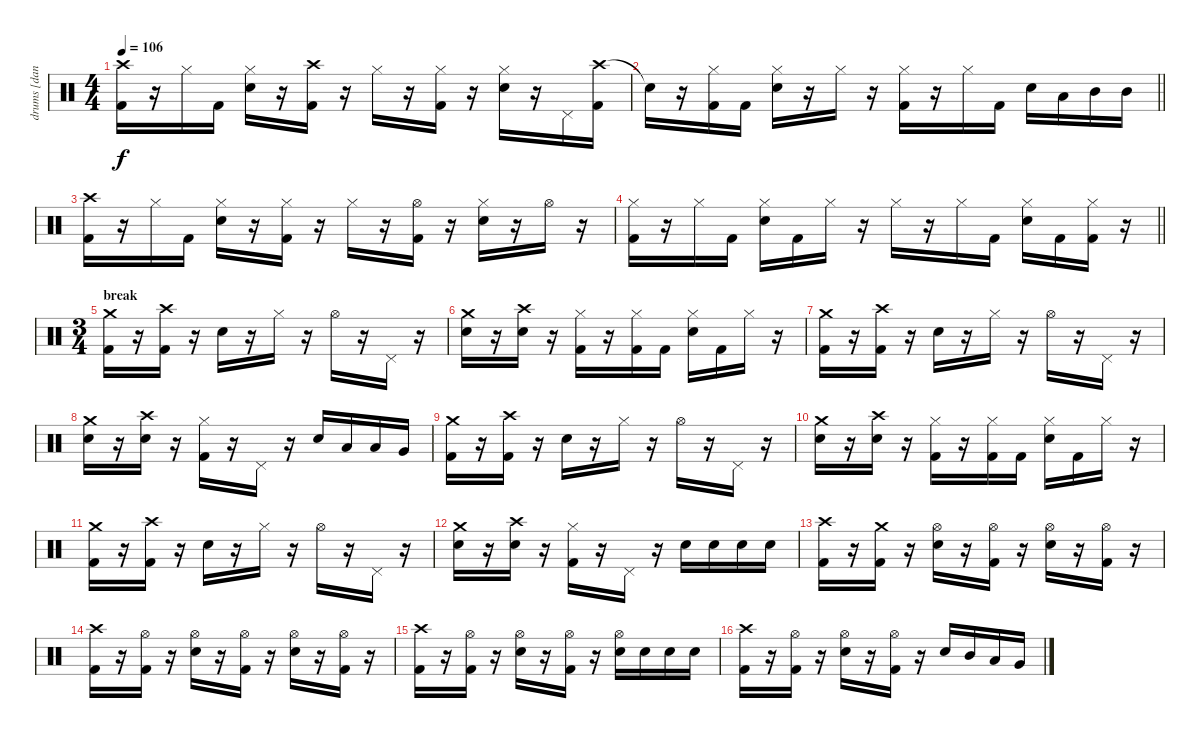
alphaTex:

\track ("drums [danny carey]" "drums [dan") {instrument percussion}
\staff {score}
\articulation defaults
\ts (4 4)
\tempo 106
\clef neutral
\ks c
("Crash high (hit)" "Kick (hit) 2").16{dy f} r.16 "Hi-Hat (closed)".16 "Kick (hit) 2".16 ("Hi-Hat (closed)" "Electric Snare (hit)").16 r.16 ("Crash high (hit)" "Kick (hit) 2").16 r.16 "Hi-Hat (closed)".16 r.16 ("Hi-Hat (closed)" "Kick (hit) 2").16 r.16 ("Hi-Hat (closed)" "Electric Snare (hit)").16 r.16 "Pedal Hi-Hat (hit)".16 ("Crash high (hit)" "Kick (hit) 2").16 |
\barLineRight lightlight "Snare (hit)"{t}.16
r.16 ("Hi-Hat (closed)" "Kick (hit) 2").16 "Kick (hit) 2".16 ("Hi-Hat (closed)" "Electric Snare (hit)").16 r.16 "Hi-Hat (closed)".16 r.16 ("Hi-Hat (closed)" "Kick (hit) 2").16 r.16 "Hi-Hat (closed)".16 "Kick (hit) 2".16 "Electric Snare (hit)".16 "Low Tom (hit)".16 "Mid Tom (hit)".16 "Mid Tom (hit)".16 |
("Crash high (hit)" "Kick (hit) 2").16 r.16 "Hi-Hat (closed)".16 "Kick (hit) 2".16 ("Hi-Hat (closed)" "Electric Snare (hit)").16 r.16 ("Hi-Hat (closed)" "Kick (hit) 2").16 r.16 "Hi-Hat (closed)".16 r.16 ("Hi-Hat (open)" "Kick (hit) 2").16 r.16 ("Hi-Hat (closed)" "Electric Snare (hit)").16 r.16 "Hi-Hat (open)".16 r.16 |
\barLineRight lightlight
("Hi-Hat (closed)" "Kick (hit) 2").16 r.16 "Hi-Hat (closed)".16 "Kick (hit) 2".16 ("Hi-Hat (closed)" "Electric Snare (hit)").16 "Kick (hit) 2".16 "Hi-Hat (closed)".16 r.16 "Hi-Hat (closed)".16 r.16 "Hi-Hat (closed)".16 "Kick (hit) 2".16 ("Hi-Hat (closed)" "Electric Snare (hit)").16 "Kick (hit) 2".16 ("Hi-Hat (closed)" "Kick (hit) 2").16 r.16 |
\ts (3 4)
\section ("" "break")
("Crash medium (hit)" "Kick (hit) 2").16 r.16 ("Crash high (hit)" "Kick (hit) 2").16 r.16 "Electric Snare (hit)".16 r.16 "Hi-Hat (closed)".16 r.16 "Hi-Hat (open)".16 r.16 "Pedal Hi-Hat (hit)".16 r.16 |
("Crash medium (hit)" "Electric Snare (hit)").16 r.16 ("Crash high (hit)" "Electric Snare (hit)").16 r.16 ("Hi-Hat (closed)" "Kick (hit) 2").16 r.16 ("Hi-Hat (closed)" "Kick (hit) 2").16 "Kick (hit) 2".16 ("Hi-Hat (closed)" "Electric Snare (hit)").16 "Kick (hit) 2".16 "Hi-Hat (closed)".16 r.16 |
("Crash medium (hit)" "Kick (hit) 2").16 r.16 ("Crash high (hit)" "Kick (hit) 2").16 r.16 "Electric Snare (hit)".16 r.16 "Hi-Hat (closed)".16 r.16 "Hi-Hat (open)".16 r.16 "Pedal Hi-Hat (hit)".16 r.16 |
("Crash medium (hit)" "Electric Snare (hit)").16 r.16 ("Crash high (hit)" "Electric Snare (hit)").16 r.16 ("Hi-Hat (closed)" "Kick (hit) 2").16 r.16 "Pedal Hi-Hat (hit)".16 r.16 "Electric Snare (hit)".16 "Low Tom (hit)".16 "Low Tom (hit)".16 "Very Low Tom (hit)".16 |
("Crash medium (hit)" "Kick (hit) 2").16 r.16 ("Crash high (hit)" "Kick (hit) 2").16 r.16 "Electric Snare (hit)".16 r.16 "Hi-Hat (closed)".16 r.16 "Hi-Hat (open)".16 r.16 "Pedal Hi-Hat (hit)".16 r.16 |
("Crash medium (hit)" "Electric Snare (hit)").16 r.16 ("Crash high (hit)" "Electric Snare (hit)").16 r.16 ("Hi-Hat (closed)" "Kick (hit) 2").16 r.16 ("Hi-Hat (closed)" "Kick (hit) 2").16 "Kick (hit) 2".16 ("Hi-Hat (closed)" "Electric Snare (hit)").16 "Kick (hit) 2".16 "Hi-Hat (closed)".16 r.16 |
("Crash medium (hit)" "Kick (hit) 2").16 r.16 ("Crash high (hit)" "Kick (hit) 2").16 r.16 "Electric Snare (hit)".16 r.16 "Hi-Hat (closed)".16 r.16 "Hi-Hat (open)".16 r.16 "Pedal Hi-Hat (hit)".16 r.16 |
("Crash medium (hit)" "Electric Snare (hit)").16 r.16 ("Crash high (hit)" "Electric Snare (hit)").16 r.16 ("Hi-Hat (closed)" "Kick (hit) 2").16 r.16 "Pedal Hi-Hat (hit)".16 r.16 "Electric Snare (hit)".16 "Electric Snare (hit)".16 "Electric Snare (hit)".16 "Electric Snare (hit)".16 |
("Crash high (hit)" "Kick (hit) 2").16 r.16 ("Crash medium (hit)" "Kick (hit) 2").16 r.16 ("Hi-Hat (open)" "Electric Snare (hit)").16 r.16 ("Hi-Hat (open)" "Kick (hit) 2").16 r.16 ("Hi-Hat (open)" "Electric Snare (hit)").16 r.16 ("Hi-Hat (open)" "Kick (hit) 2").16 r.16 |
("Crash high (hit)" "Kick (hit) 2").16 r.16 ("Hi-Hat (open)" "Kick (hit) 2").16 r.16 ("Hi-Hat (open)" "Electric Snare (hit)").16 r.16 ("Hi-Hat (open)" "Kick (hit) 2").16 r.16 ("Hi-Hat (open)" "Electric Snare (hit)").16 r.16 ("Hi-Hat (open)" "Kick (hit) 2").16 r.16 |
("Crash high (hit)" "Kick (hit) 2").16 r.16 ("Hi-Hat (open)" "Kick (hit) 2").16 r.16 ("Hi-Hat (open)" "Electric Snare (hit)").16 r.16 ("Hi-Hat (open)" "Kick (hit) 2").16 r.16 ("Hi-Hat (open)" "Electric Snare (hit)").16 "Electric Snare (hit)".16 "Electric Snare (hit)".16 "Electric Snare (hit)".16 |
("Crash high (hit)" "Kick (hit) 2").16 r.16 ("Hi-Hat (open)" "Kick (hit) 2").16 r.16 ("Hi-Hat (open)" "Electric Snare (hit)").16 r.16 ("Hi-Hat (open)" "Kick (hit) 2").16 r.16 "Electric Snare (hit)".16 "Mid Tom (hit)".16 "Low Tom (hit)".16 "Very Low Tom (hit)".16
